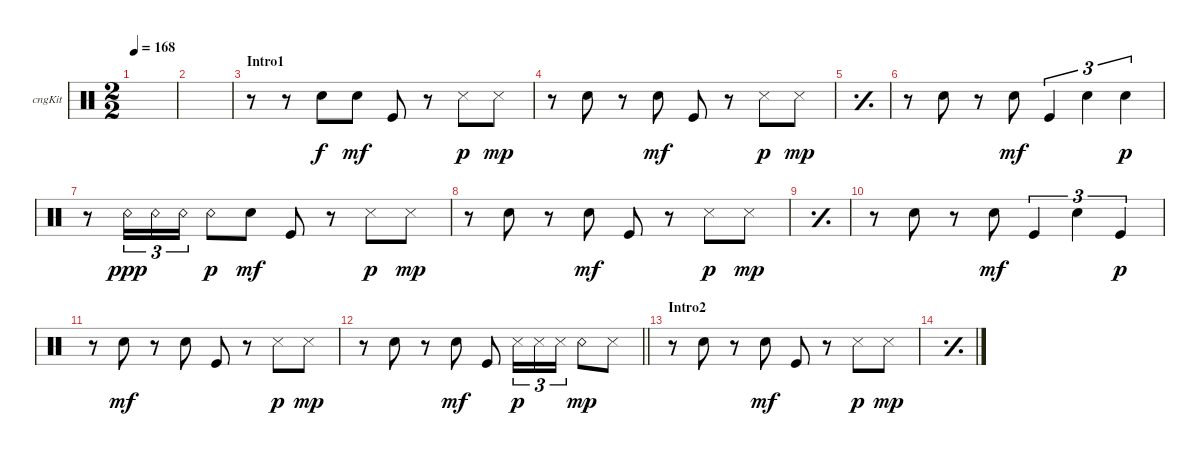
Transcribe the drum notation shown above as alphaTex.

\bracketExtendMode groupsimilarinstruments
\multiTrackTrackNamePolicy hidden
\firstSystemTrackNameOrientation horizontal
\otherSystemsTrackNameOrientation horizontal
\track ("Congas" "cngKit") {instrument percussion}
\staff {score}
\articulation defaults
\ts (2 2)
\tempo 168
\clef neutral
\ks c
|
|
\section ("" "Intro1")
r.8 r.8 "Snare (hit) 2".8 "Snare (hit) 2".8{dy mf} "Kick (hit)".8 r.8 "Snare (side stick) 3".8{dy p} "Snare (side stick) 3".8{dy mp} |
r.8 "Snare (hit) 2".8 r.8 "Snare (hit) 2".8{dy mf} "Kick (hit)".8 r.8 "Snare (side stick) 3".8{dy p} "Snare (side stick) 3".8{dy mp} |
\simile simple
|
\simile none
r.8 "Snare (hit) 2".8 r.8 "Snare (hit) 2".8{dy mf} "Kick (hit)".4{tu (3 2)} "Snare (hit) 2".4{tu (3 2)} "Snare (hit) 2".4{tu (3 2) dy p} |
r.8 "Snare (rim shot)".16{tu (3 2) dy ppp} "Snare (rim shot)".16{tu (3 2)} "Snare (rim shot)".16{tu (3 2)} "Snare (rim shot)".8{dy p} "Snare (hit) 2".8{dy mf} "Kick (hit)".8 r.8 "Snare (side stick) 3".8{dy p} "Snare (side stick) 3".8{dy mp} |
r.8 "Snare (hit) 2".8 r.8 "Snare (hit) 2".8{dy mf} "Kick (hit)".8 r.8 "Snare (side stick) 3".8{dy p} "Snare (side stick) 3".8{dy mp} |
\simile simple
|
\simile none
r.8 "Snare (hit) 2".8 r.8 "Snare (hit) 2".8{dy mf} "Kick (hit)".4{tu (3 2)} "Snare (hit) 2".4{tu (3 2)} "Kick (hit)".4{tu (3 2) dy p} |
r.8 "Snare (hit) 2".8{dy mf} r.8 "Snare (hit) 2".8 "Kick (hit)".8 r.8 "Snare (side stick) 3".8{dy p} "Snare (side stick) 3".8{dy mp} |
\barLineRight lightlight
r.8 "Snare (hit) 2".8 r.8 "Snare (hit) 2".8{dy mf} "Kick (hit)".8 "Snare (side stick) 3".16{tu (3 2) dy p} "Snare (side stick) 3".16{tu (3 2)} "Snare (side stick) 3".16{tu (3 2)} "Snare (rim shot)".8{dy mp} "Snare (side stick) 3".8 |
\section ("" "Intro2")
r.8 "Snare (hit) 2".8 r.8 "Snare (hit) 2".8{dy mf} "Kick (hit)".8 r.8 "Snare (side stick) 3".8{dy p} "Snare (side stick) 3".8{dy mp} |
\simile simple
